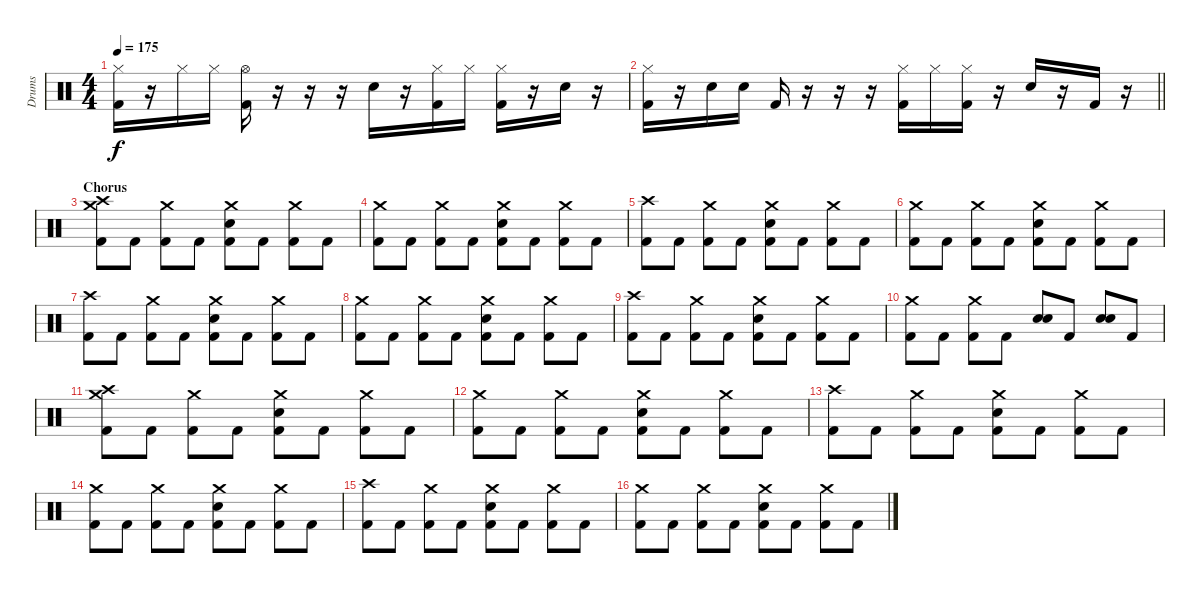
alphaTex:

\track ("Drums" "Drums") {instrument percussion}
\staff {score}
\articulation defaults
\ts (4 4)
\tempo 175
\clef neutral
\ks c
("Hi-Hat (closed)" "Kick (hit) 2").16{dy f} r.16 "Hi-Hat (closed)".16 "Hi-Hat (closed)".16 ("Hi-Hat (open)" "Kick (hit) 2").16 r.16 r.16 r.16 "Electric Snare (hit)".16 r.16 ("Hi-Hat (closed)" "Kick (hit) 2").16 "Hi-Hat (closed)".16 ("Hi-Hat (closed)" "Kick (hit) 2").16 r.16 "Electric Snare (hit)".16 r.16 |
\barLineRight lightlight
("Hi-Hat (closed)" "Kick (hit) 2").16 r.16 "Electric Snare (hit)".16 "Electric Snare (hit)".16 "Kick (hit) 2".16 r.16 r.16 r.16 ("Hi-Hat (closed)" "Kick (hit) 2").16 "Hi-Hat (closed)".16 ("Hi-Hat (closed)" "Kick (hit) 2").16 r.16 "Electric Snare (hit)".16 r.16 "Kick (hit) 2".16 r.16 |
\section ("" "Chorus")
("Crash medium (hit)" "Crash high (hit)" "Kick (hit) 2").8 "Kick (hit) 2".8 ("Crash medium (hit)" "Kick (hit) 2").8 "Kick (hit) 2".8 ("Crash medium (hit)" "Electric Snare (hit)" "Kick (hit) 2").8 "Kick (hit) 2".8 ("Crash medium (hit)" "Kick (hit) 2").8 "Kick (hit) 2".8 |
("Crash medium (hit)" "Kick (hit) 2").8 "Kick (hit) 2".8 ("Crash medium (hit)" "Kick (hit) 2").8 "Kick (hit) 2".8 ("Crash medium (hit)" "Electric Snare (hit)" "Kick (hit) 2").8 "Kick (hit) 2".8 ("Crash medium (hit)" "Kick (hit) 2").8 "Kick (hit) 2".8 |
("Crash high (hit)" "Kick (hit) 2").8 "Kick (hit) 2".8 ("Crash medium (hit)" "Kick (hit) 2").8 "Kick (hit) 2".8 ("Crash medium (hit)" "Electric Snare (hit)" "Kick (hit) 2").8 "Kick (hit) 2".8 ("Crash medium (hit)" "Kick (hit) 2").8 "Kick (hit) 2".8 |
("Crash medium (hit)" "Kick (hit) 2").8 "Kick (hit) 2".8 ("Crash medium (hit)" "Kick (hit) 2").8 "Kick (hit) 2".8 ("Crash medium (hit)" "Electric Snare (hit)" "Kick (hit) 2").8 "Kick (hit) 2".8 ("Crash medium (hit)" "Kick (hit) 2").8 "Kick (hit) 2".8 |
("Crash high (hit)" "Kick (hit) 2").8 "Kick (hit) 2".8 ("Crash medium (hit)" "Kick (hit) 2").8 "Kick (hit) 2".8 ("Crash medium (hit)" "Electric Snare (hit)" "Kick (hit) 2").8 "Kick (hit) 2".8 ("Crash medium (hit)" "Kick (hit) 2").8 "Kick (hit) 2".8 |
("Crash medium (hit)" "Kick (hit) 2").8 "Kick (hit) 2".8 ("Crash medium (hit)" "Kick (hit) 2").8 "Kick (hit) 2".8 ("Crash medium (hit)" "Electric Snare (hit)" "Kick (hit) 2").8 "Kick (hit) 2".8 ("Crash medium (hit)" "Kick (hit) 2").8 "Kick (hit) 2".8 |
("Crash high (hit)" "Kick (hit) 2").8 "Kick (hit) 2".8 ("Crash medium (hit)" "Kick (hit) 2").8 "Kick (hit) 2".8 ("Crash medium (hit)" "Electric Snare (hit)" "Kick (hit) 2").8 "Kick (hit) 2".8 ("Crash medium (hit)" "Kick (hit) 2").8 "Kick (hit) 2".8 |
("Crash medium (hit)" "Kick (hit) 2").8 "Kick (hit) 2".8 ("Crash medium (hit)" "Kick (hit) 2").8 "Kick (hit) 2".8 ("Electric Snare (hit)" "Electric Snare (hit)").8 "Kick (hit) 2".8 ("Electric Snare (hit)" "Electric Snare (hit)").8 "Kick (hit) 2".8 |
("Crash medium (hit)" "Crash high (hit)" "Kick (hit) 2").8 "Kick (hit) 2".8 ("Crash medium (hit)" "Kick (hit) 2").8 "Kick (hit) 2".8 ("Crash medium (hit)" "Electric Snare (hit)" "Kick (hit) 2").8 "Kick (hit) 2".8 ("Crash medium (hit)" "Kick (hit) 2").8 "Kick (hit) 2".8 |
("Crash medium (hit)" "Kick (hit) 2").8 "Kick (hit) 2".8 ("Crash medium (hit)" "Kick (hit) 2").8 "Kick (hit) 2".8 ("Crash medium (hit)" "Electric Snare (hit)" "Kick (hit) 2").8 "Kick (hit) 2".8 ("Crash medium (hit)" "Kick (hit) 2").8 "Kick (hit) 2".8 |
("Crash high (hit)" "Kick (hit) 2").8 "Kick (hit) 2".8 ("Crash medium (hit)" "Kick (hit) 2").8 "Kick (hit) 2".8 ("Crash medium (hit)" "Electric Snare (hit)" "Kick (hit) 2").8 "Kick (hit) 2".8 ("Crash medium (hit)" "Kick (hit) 2").8 "Kick (hit) 2".8 |
("Crash medium (hit)" "Kick (hit) 2").8 "Kick (hit) 2".8 ("Crash medium (hit)" "Kick (hit) 2").8 "Kick (hit) 2".8 ("Crash medium (hit)" "Electric Snare (hit)" "Kick (hit) 2").8 "Kick (hit) 2".8 ("Crash medium (hit)" "Kick (hit) 2").8 "Kick (hit) 2".8 |
("Crash high (hit)" "Kick (hit) 2").8 "Kick (hit) 2".8 ("Crash medium (hit)" "Kick (hit) 2").8 "Kick (hit) 2".8 ("Crash medium (hit)" "Electric Snare (hit)" "Kick (hit) 2").8 "Kick (hit) 2".8 ("Crash medium (hit)" "Kick (hit) 2").8 "Kick (hit) 2".8 |
("Crash medium (hit)" "Kick (hit) 2").8 "Kick (hit) 2".8 ("Crash medium (hit)" "Kick (hit) 2").8 "Kick (hit) 2".8 ("Crash medium (hit)" "Electric Snare (hit)" "Kick (hit) 2").8 "Kick (hit) 2".8 ("Crash medium (hit)" "Kick (hit) 2").8 "Kick (hit) 2".8
